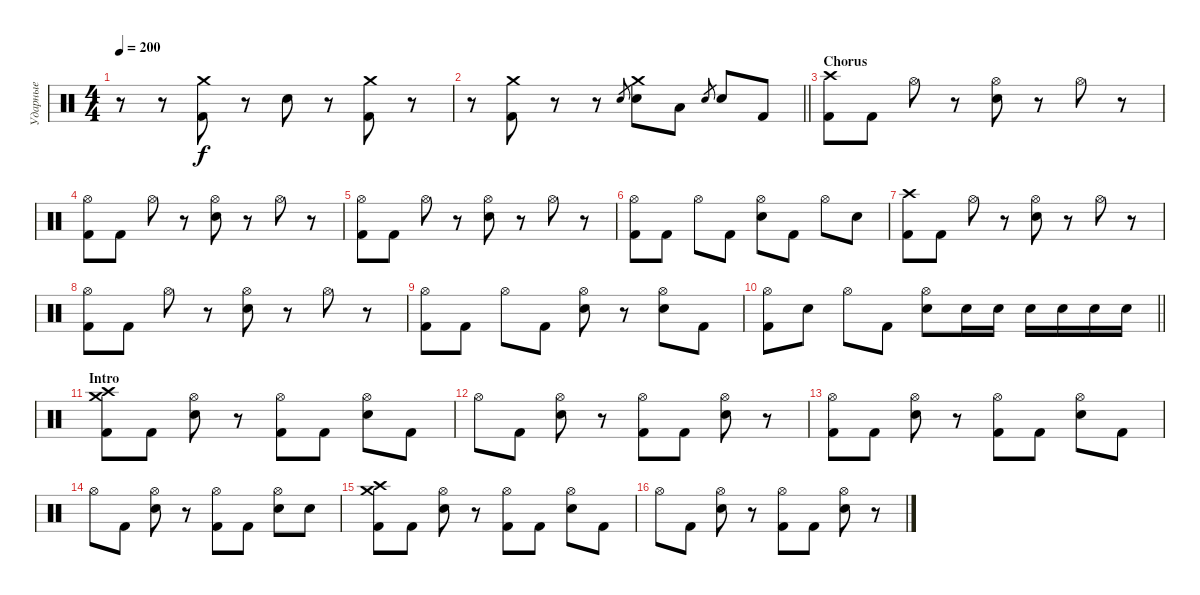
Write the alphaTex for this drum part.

\track ("Ударные" "Ударные") {instrument percussion}
\staff {score}
\articulation defaults
\ts (4 4)
\tempo 200
\clef neutral
\ks c
r.8{dy f} r.8 ("Crash medium (hit)" "Kick (hit) 2").8 r.8 "Electric Snare (hit)".8 r.8 ("Crash medium (hit)" "Kick (hit) 2").8 r.8 |
\barLineRight lightlight
r.8 ("Crash medium (hit)" "Kick (hit) 2").8 r.8 r.8 "Electric Snare (hit)".8{gr} ("Crash medium (hit)" "Electric Snare (hit)").8 "Low Tom (hit)".8 "Electric Snare (hit)".8{gr} "Electric Snare (hit)".8 "Kick (hit) 2".8 |
\section ("" "Chorus")
("Crash high (hit)" "Kick (hit) 2").8 "Kick (hit) 2".8 "Hi-Hat (open)".8 r.8 ("Hi-Hat (open)" "Electric Snare (hit)").8 r.8 "Hi-Hat (open)".8 r.8 |
("Hi-Hat (open)" "Kick (hit) 2").8 "Kick (hit) 2".8 "Hi-Hat (open)".8 r.8 ("Hi-Hat (open)" "Electric Snare (hit)").8 r.8 "Hi-Hat (open)".8 r.8 |
("Hi-Hat (open)" "Kick (hit) 2").8 "Kick (hit) 2".8 "Hi-Hat (open)".8 r.8 ("Hi-Hat (open)" "Electric Snare (hit)").8 r.8 "Hi-Hat (open)".8 r.8 |
("Hi-Hat (open)" "Kick (hit) 2").8 "Kick (hit) 2".8 "Hi-Hat (open)".8 "Kick (hit) 2".8 ("Hi-Hat (open)" "Electric Snare (hit)").8 "Kick (hit) 2".8 "Hi-Hat (open)".8 "Electric Snare (hit)".8 |
("Crash high (hit)" "Kick (hit) 2").8 "Kick (hit) 2".8 "Hi-Hat (open)".8 r.8 ("Hi-Hat (open)" "Electric Snare (hit)").8 r.8 "Hi-Hat (open)".8 r.8 |
("Hi-Hat (open)" "Kick (hit) 2").8 "Kick (hit) 2".8 "Hi-Hat (open)".8 r.8 ("Hi-Hat (open)" "Electric Snare (hit)").8 r.8 "Hi-Hat (open)".8 r.8 |
("Hi-Hat (open)" "Kick (hit) 2").8 "Kick (hit) 2".8 "Hi-Hat (open)".8 "Kick (hit) 2".8 ("Hi-Hat (open)" "Electric Snare (hit)").8 r.8 ("Hi-Hat (open)" "Electric Snare (hit)").8 "Kick (hit) 2".8 |
\barLineRight lightlight
("Hi-Hat (open)" "Kick (hit) 2").8 "Electric Snare (hit)".8 "Hi-Hat (open)".8 "Kick (hit) 2".8 ("Hi-Hat (open)" "Electric Snare (hit)").8 "Electric Snare (hit)".16 "Electric Snare (hit)".16 "Electric Snare (hit)".16 "Electric Snare (hit)".16 "Electric Snare (hit)".16 "Electric Snare (hit)".16 |
\section ("" "Intro")
("Crash medium (hit)" "Crash high (hit)" "Kick (hit) 2").8 "Kick (hit) 2".8 ("Hi-Hat (open)" "Electric Snare (hit)").8 r.8 ("Hi-Hat (open)" "Kick (hit) 2").8 "Kick (hit) 2".8 ("Hi-Hat (open)" "Electric Snare (hit)").8 "Kick (hit) 2".8 |
"Hi-Hat (open)".8 "Kick (hit) 2".8 ("Hi-Hat (open)" "Electric Snare (hit)").8 r.8 ("Hi-Hat (open)" "Kick (hit) 2").8 "Kick (hit) 2".8 ("Hi-Hat (open)" "Electric Snare (hit)").8 r.8 |
("Hi-Hat (open)" "Kick (hit) 2").8 "Kick (hit) 2".8 ("Hi-Hat (open)" "Electric Snare (hit)").8 r.8 ("Hi-Hat (open)" "Kick (hit) 2").8 "Kick (hit) 2".8 ("Hi-Hat (open)" "Electric Snare (hit)").8 "Kick (hit) 2".8 |
"Hi-Hat (open)".8 "Kick (hit) 2".8 ("Hi-Hat (open)" "Electric Snare (hit)").8 r.8 ("Hi-Hat (open)" "Kick (hit) 2").8 "Kick (hit) 2".8 ("Hi-Hat (open)" "Electric Snare (hit)").8 "Electric Snare (hit)".8 |
("Crash medium (hit)" "Crash high (hit)" "Kick (hit) 2").8 "Kick (hit) 2".8 ("Hi-Hat (open)" "Electric Snare (hit)").8 r.8 ("Hi-Hat (open)" "Kick (hit) 2").8 "Kick (hit) 2".8 ("Hi-Hat (open)" "Electric Snare (hit)").8 "Kick (hit) 2".8 |
"Hi-Hat (open)".8 "Kick (hit) 2".8 ("Hi-Hat (open)" "Electric Snare (hit)").8 r.8 ("Hi-Hat (open)" "Kick (hit) 2").8 "Kick (hit) 2".8 ("Hi-Hat (open)" "Electric Snare (hit)").8 r.8
